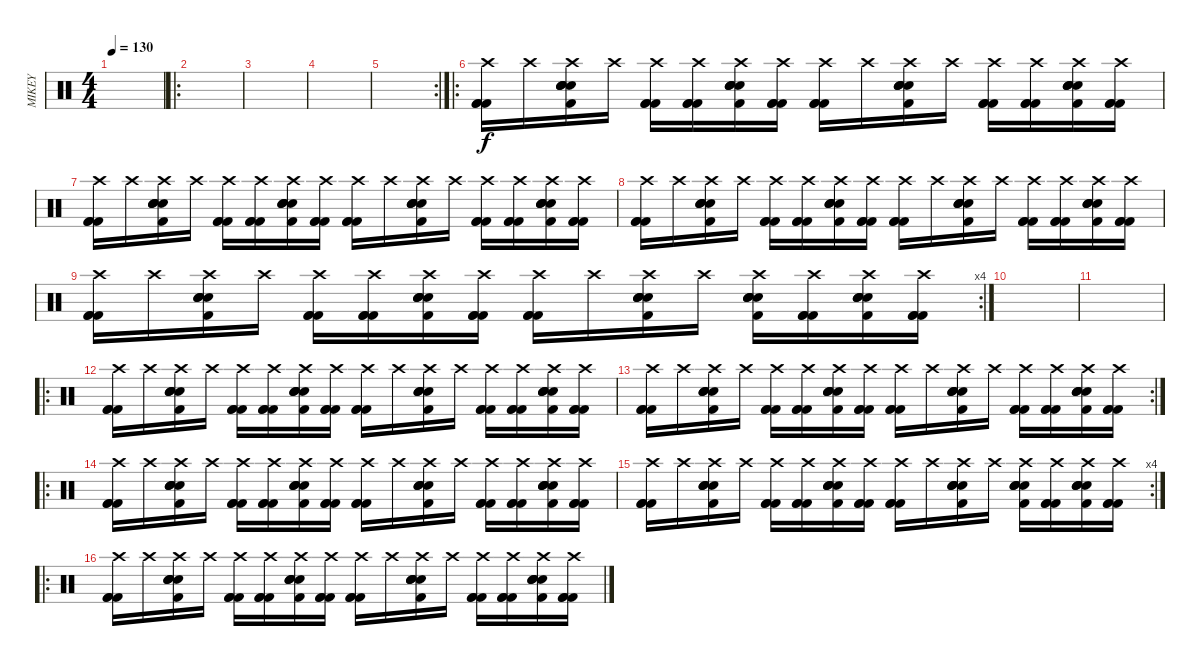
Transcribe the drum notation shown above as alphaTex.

\track ("MIKEY" "MIKEY") {instrument percussion}
\staff {score}
\articulation defaults
\ts (4 4)
\tempo 130
\clef neutral
\ks c
|
\ro
|
|
|
\rc 2
|
\ro
("Crash high (hit)" "Kick (hit) 2" "Kick (hit) 2" "Kick (hit) 2").16 "Crash high (hit)".16 ("Crash high (hit)" "Snare (hit) 2" "Kick (hit) 2" "Electric Snare (hit)" "Electric Snare (hit)" "Electric Snare (hit)").16 "Crash high (hit)".16 ("Crash high (hit)" "Kick (hit) 2" "Kick (hit) 2" "Kick (hit) 2").16 ("Crash high (hit)" "Kick (hit) 2" "Kick (hit) 2" "Kick (hit) 2").16 ("Crash high (hit)" "Snare (hit) 2" "Kick (hit) 2" "Electric Snare (hit)" "Electric Snare (hit)" "Electric Snare (hit)").16 ("Crash high (hit)" "Kick (hit) 2" "Kick (hit) 2" "Kick (hit) 2").16 ("Crash high (hit)" "Kick (hit) 2" "Kick (hit) 2" "Kick (hit) 2").16 "Crash high (hit)".16 ("Crash high (hit)" "Snare (hit) 2" "Kick (hit) 2" "Electric Snare (hit)" "Electric Snare (hit)" "Electric Snare (hit)").16 "Crash high (hit)".16 ("Crash high (hit)" "Kick (hit) 2" "Kick (hit) 2" "Kick (hit) 2").16 ("Crash high (hit)" "Kick (hit) 2" "Kick (hit) 2" "Kick (hit) 2").16 ("Crash high (hit)" "Snare (hit) 2" "Kick (hit) 2" "Electric Snare (hit)" "Electric Snare (hit)" "Electric Snare (hit)").16 ("Crash high (hit)" "Kick (hit) 2" "Kick (hit) 2" "Kick (hit) 2").16 |
("Crash high (hit)" "Kick (hit) 2" "Kick (hit) 2" "Kick (hit) 2").16 "Crash high (hit)".16 ("Crash high (hit)" "Snare (hit) 2" "Kick (hit) 2" "Electric Snare (hit)" "Electric Snare (hit)" "Electric Snare (hit)").16 "Crash high (hit)".16 ("Crash high (hit)" "Kick (hit) 2" "Kick (hit) 2" "Kick (hit) 2").16 ("Crash high (hit)" "Kick (hit) 2" "Kick (hit) 2" "Kick (hit) 2").16 ("Crash high (hit)" "Snare (hit) 2" "Kick (hit) 2" "Electric Snare (hit)" "Electric Snare (hit)" "Electric Snare (hit)").16 ("Crash high (hit)" "Kick (hit) 2" "Kick (hit) 2" "Kick (hit) 2").16 ("Crash high (hit)" "Kick (hit) 2" "Kick (hit) 2" "Kick (hit) 2").16 "Crash high (hit)".16 ("Crash high (hit)" "Snare (hit) 2" "Kick (hit) 2" "Electric Snare (hit)" "Electric Snare (hit)" "Electric Snare (hit)").16 "Crash high (hit)".16 ("Crash high (hit)" "Kick (hit) 2" "Kick (hit) 2" "Kick (hit) 2").16 ("Crash high (hit)" "Kick (hit) 2" "Kick (hit) 2" "Kick (hit) 2").16 ("Crash high (hit)" "Snare (hit) 2" "Kick (hit) 2" "Electric Snare (hit)" "Electric Snare (hit)" "Electric Snare (hit)").16 ("Crash high (hit)" "Kick (hit) 2" "Kick (hit) 2" "Kick (hit) 2").16 |
("Crash high (hit)" "Kick (hit) 2" "Kick (hit) 2" "Kick (hit) 2").16 "Crash high (hit)".16 ("Crash high (hit)" "Snare (hit) 2" "Kick (hit) 2" "Electric Snare (hit)" "Electric Snare (hit)" "Electric Snare (hit)").16 "Crash high (hit)".16 ("Crash high (hit)" "Kick (hit) 2" "Kick (hit) 2" "Kick (hit) 2").16 ("Crash high (hit)" "Kick (hit) 2" "Kick (hit) 2" "Kick (hit) 2").16 ("Crash high (hit)" "Snare (hit) 2" "Kick (hit) 2" "Electric Snare (hit)" "Electric Snare (hit)" "Electric Snare (hit)").16 ("Crash high (hit)" "Kick (hit) 2" "Kick (hit) 2" "Kick (hit) 2").16 ("Crash high (hit)" "Kick (hit) 2" "Kick (hit) 2" "Kick (hit) 2").16 "Crash high (hit)".16 ("Crash high (hit)" "Snare (hit) 2" "Kick (hit) 2" "Electric Snare (hit)" "Electric Snare (hit)" "Electric Snare (hit)").16 "Crash high (hit)".16 ("Crash high (hit)" "Kick (hit) 2" "Kick (hit) 2" "Kick (hit) 2").16 ("Crash high (hit)" "Kick (hit) 2" "Kick (hit) 2" "Kick (hit) 2").16 ("Crash high (hit)" "Snare (hit) 2" "Kick (hit) 2" "Electric Snare (hit)" "Electric Snare (hit)" "Electric Snare (hit)").16 ("Crash high (hit)" "Kick (hit) 2" "Kick (hit) 2" "Kick (hit) 2").16 |
\rc 4
("Crash high (hit)" "Kick (hit) 2" "Kick (hit) 2" "Kick (hit) 2").16 "Crash high (hit)".16 ("Crash high (hit)" "Snare (hit) 2" "Kick (hit) 2" "Electric Snare (hit)" "Electric Snare (hit)" "Electric Snare (hit)").16 "Crash high (hit)".16 ("Crash high (hit)" "Kick (hit) 2" "Kick (hit) 2" "Kick (hit) 2").16 ("Crash high (hit)" "Kick (hit) 2" "Kick (hit) 2" "Kick (hit) 2").16 ("Crash high (hit)" "Snare (hit) 2" "Kick (hit) 2" "Electric Snare (hit)" "Electric Snare (hit)" "Electric Snare (hit)").16 ("Crash high (hit)" "Kick (hit) 2" "Kick (hit) 2" "Kick (hit) 2").16 ("Crash high (hit)" "Kick (hit) 2" "Kick (hit) 2" "Kick (hit) 2").16 "Crash high (hit)".16 ("Crash high (hit)" "Snare (hit) 2" "Kick (hit) 2" "Electric Snare (hit)" "Electric Snare (hit)" "Electric Snare (hit)").16 "Crash high (hit)".16 ("Crash high (hit)" "Snare (hit) 2" "Kick (hit) 2" "Electric Snare (hit)" "Electric Snare (hit)" "Electric Snare (hit)").16 ("Crash high (hit)" "Kick (hit) 2" "Kick (hit) 2" "Kick (hit) 2").16 ("Crash high (hit)" "Snare (hit) 2" "Kick (hit) 2" "Electric Snare (hit)" "Electric Snare (hit)" "Electric Snare (hit)").16 ("Crash high (hit)" "Kick (hit) 2" "Kick (hit) 2" "Kick (hit) 2").16 |
|
|
\ro
("Crash high (hit)" "Kick (hit) 2" "Kick (hit) 2" "Kick (hit) 2").16 "Crash high (hit)".16 ("Crash high (hit)" "Snare (hit) 2" "Kick (hit) 2" "Electric Snare (hit)" "Electric Snare (hit)" "Electric Snare (hit)").16 "Crash high (hit)".16 ("Crash high (hit)" "Kick (hit) 2" "Kick (hit) 2" "Kick (hit) 2").16 ("Crash high (hit)" "Kick (hit) 2" "Kick (hit) 2" "Kick (hit) 2").16 ("Crash high (hit)" "Snare (hit) 2" "Kick (hit) 2" "Electric Snare (hit)" "Electric Snare (hit)" "Electric Snare (hit)").16 ("Crash high (hit)" "Kick (hit) 2" "Kick (hit) 2" "Kick (hit) 2").16 ("Crash high (hit)" "Kick (hit) 2" "Kick (hit) 2" "Kick (hit) 2").16 "Crash high (hit)".16 ("Crash high (hit)" "Snare (hit) 2" "Kick (hit) 2" "Electric Snare (hit)" "Electric Snare (hit)" "Electric Snare (hit)").16 "Crash high (hit)".16 ("Crash high (hit)" "Kick (hit) 2" "Kick (hit) 2" "Kick (hit) 2").16 ("Crash high (hit)" "Kick (hit) 2" "Kick (hit) 2" "Kick (hit) 2").16 ("Crash high (hit)" "Snare (hit) 2" "Kick (hit) 2" "Electric Snare (hit)" "Electric Snare (hit)" "Electric Snare (hit)").16 ("Crash high (hit)" "Kick (hit) 2" "Kick (hit) 2" "Kick (hit) 2").16 |
\rc 2
("Crash high (hit)" "Kick (hit) 2" "Kick (hit) 2" "Kick (hit) 2").16 "Crash high (hit)".16 ("Crash high (hit)" "Snare (hit) 2" "Kick (hit) 2" "Electric Snare (hit)" "Electric Snare (hit)" "Electric Snare (hit)").16 "Crash high (hit)".16 ("Crash high (hit)" "Kick (hit) 2" "Kick (hit) 2" "Kick (hit) 2").16 ("Crash high (hit)" "Kick (hit) 2" "Kick (hit) 2" "Kick (hit) 2").16 ("Crash high (hit)" "Snare (hit) 2" "Kick (hit) 2" "Electric Snare (hit)" "Electric Snare (hit)" "Electric Snare (hit)").16 ("Crash high (hit)" "Kick (hit) 2" "Kick (hit) 2" "Kick (hit) 2").16 ("Crash high (hit)" "Kick (hit) 2" "Kick (hit) 2" "Kick (hit) 2").16 "Crash high (hit)".16 ("Crash high (hit)" "Snare (hit) 2" "Kick (hit) 2" "Electric Snare (hit)" "Electric Snare (hit)" "Electric Snare (hit)").16 "Crash high (hit)".16 ("Crash high (hit)" "Kick (hit) 2" "Kick (hit) 2" "Kick (hit) 2").16 ("Crash high (hit)" "Kick (hit) 2" "Kick (hit) 2" "Kick (hit) 2").16 ("Crash high (hit)" "Snare (hit) 2" "Kick (hit) 2" "Electric Snare (hit)" "Electric Snare (hit)" "Electric Snare (hit)").16 ("Crash high (hit)" "Kick (hit) 2" "Kick (hit) 2" "Kick (hit) 2").16 |
\ro
("Crash high (hit)" "Kick (hit) 2" "Kick (hit) 2" "Kick (hit) 2").16 "Crash high (hit)".16 ("Crash high (hit)" "Snare (hit) 2" "Kick (hit) 2" "Electric Snare (hit)" "Electric Snare (hit)" "Electric Snare (hit)").16 "Crash high (hit)".16 ("Crash high (hit)" "Kick (hit) 2" "Kick (hit) 2" "Kick (hit) 2").16 ("Crash high (hit)" "Kick (hit) 2" "Kick (hit) 2" "Kick (hit) 2").16 ("Crash high (hit)" "Snare (hit) 2" "Kick (hit) 2" "Electric Snare (hit)" "Electric Snare (hit)" "Electric Snare (hit)").16 ("Crash high (hit)" "Kick (hit) 2" "Kick (hit) 2" "Kick (hit) 2").16 ("Crash high (hit)" "Kick (hit) 2" "Kick (hit) 2" "Kick (hit) 2").16 "Crash high (hit)".16 ("Crash high (hit)" "Snare (hit) 2" "Kick (hit) 2" "Electric Snare (hit)" "Electric Snare (hit)" "Electric Snare (hit)").16 "Crash high (hit)".16 ("Crash high (hit)" "Kick (hit) 2" "Kick (hit) 2" "Kick (hit) 2").16 ("Crash high (hit)" "Kick (hit) 2" "Kick (hit) 2" "Kick (hit) 2").16 ("Crash high (hit)" "Snare (hit) 2" "Kick (hit) 2" "Electric Snare (hit)" "Electric Snare (hit)" "Electric Snare (hit)").16 ("Crash high (hit)" "Kick (hit) 2" "Kick (hit) 2" "Kick (hit) 2").16 |
\rc 4
("Crash high (hit)" "Kick (hit) 2" "Kick (hit) 2" "Kick (hit) 2").16 "Crash high (hit)".16 ("Crash high (hit)" "Snare (hit) 2" "Kick (hit) 2" "Electric Snare (hit)" "Electric Snare (hit)" "Electric Snare (hit)").16 "Crash high (hit)".16 ("Crash high (hit)" "Kick (hit) 2" "Kick (hit) 2" "Kick (hit) 2").16 ("Crash high (hit)" "Kick (hit) 2" "Kick (hit) 2" "Kick (hit) 2").16 ("Crash high (hit)" "Snare (hit) 2" "Kick (hit) 2" "Electric Snare (hit)" "Electric Snare (hit)" "Electric Snare (hit)").16 ("Crash high (hit)" "Kick (hit) 2" "Kick (hit) 2" "Kick (hit) 2").16 ("Crash high (hit)" "Kick (hit) 2" "Kick (hit) 2" "Kick (hit) 2").16 "Crash high (hit)".16 ("Crash high (hit)" "Snare (hit) 2" "Kick (hit) 2" "Electric Snare (hit)" "Electric Snare (hit)" "Electric Snare (hit)").16 "Crash high (hit)".16 ("Crash high (hit)" "Snare (hit) 2" "Kick (hit) 2" "Electric Snare (hit)" "Electric Snare (hit)" "Electric Snare (hit)").16 ("Crash high (hit)" "Kick (hit) 2" "Kick (hit) 2" "Kick (hit) 2").16 ("Crash high (hit)" "Snare (hit) 2" "Kick (hit) 2" "Electric Snare (hit)" "Electric Snare (hit)" "Electric Snare (hit)").16 ("Crash high (hit)" "Kick (hit) 2" "Kick (hit) 2" "Kick (hit) 2").16 |
\ro
("Crash high (hit)" "Kick (hit) 2" "Kick (hit) 2" "Kick (hit) 2").16 "Crash high (hit)".16 ("Crash high (hit)" "Snare (hit) 2" "Kick (hit) 2" "Electric Snare (hit)" "Electric Snare (hit)" "Electric Snare (hit)").16 "Crash high (hit)".16 ("Crash high (hit)" "Kick (hit) 2" "Kick (hit) 2" "Kick (hit) 2").16 ("Crash high (hit)" "Kick (hit) 2" "Kick (hit) 2" "Kick (hit) 2").16 ("Crash high (hit)" "Snare (hit) 2" "Kick (hit) 2" "Electric Snare (hit)" "Electric Snare (hit)" "Electric Snare (hit)").16 ("Crash high (hit)" "Kick (hit) 2" "Kick (hit) 2" "Kick (hit) 2").16 ("Crash high (hit)" "Kick (hit) 2" "Kick (hit) 2" "Kick (hit) 2").16 "Crash high (hit)".16 ("Crash high (hit)" "Snare (hit) 2" "Kick (hit) 2" "Electric Snare (hit)" "Electric Snare (hit)" "Electric Snare (hit)").16 "Crash high (hit)".16 ("Crash high (hit)" "Kick (hit) 2" "Kick (hit) 2" "Kick (hit) 2").16 ("Crash high (hit)" "Kick (hit) 2" "Kick (hit) 2" "Kick (hit) 2").16 ("Crash high (hit)" "Snare (hit) 2" "Kick (hit) 2" "Electric Snare (hit)" "Electric Snare (hit)" "Electric Snare (hit)").16 ("Crash high (hit)" "Kick (hit) 2" "Kick (hit) 2" "Kick (hit) 2").16
